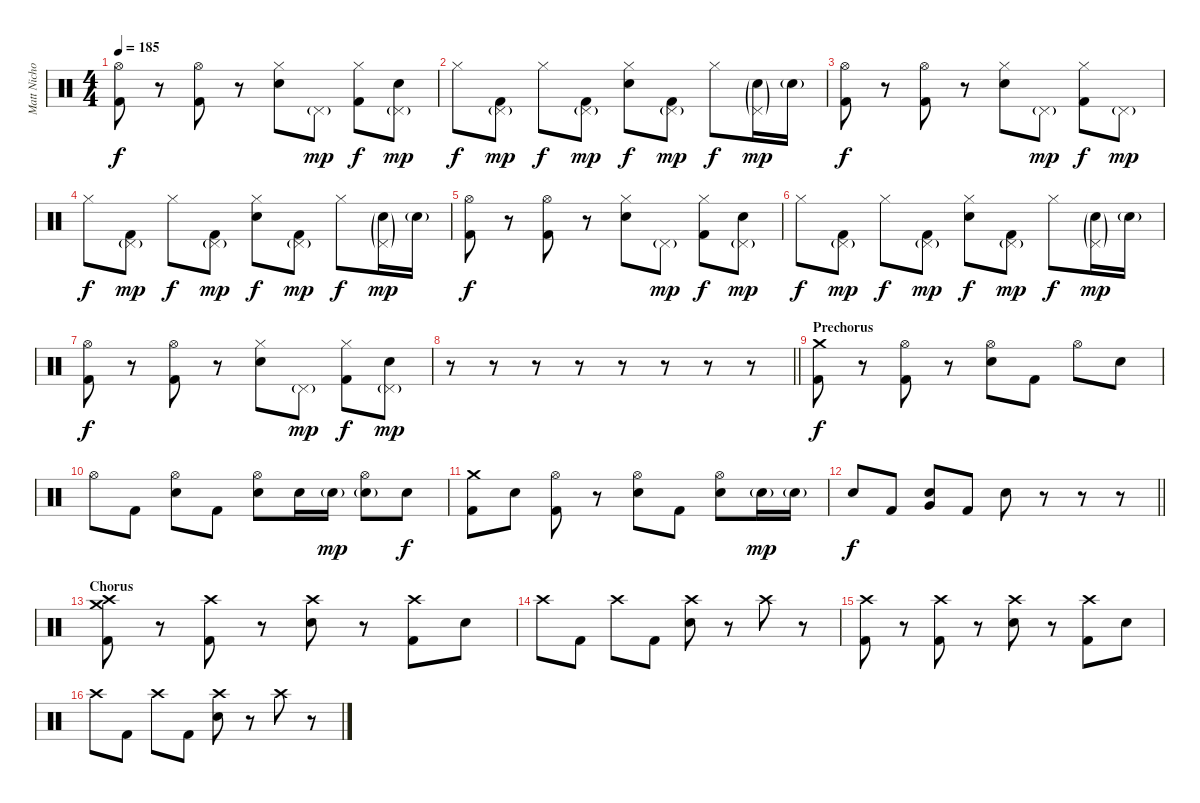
\track ("Matt Nicholls" "Matt Nicho") {instrument percussion}
\staff {score}
\articulation defaults
\ts (4 4)
\tempo 185
\clef neutral
\ks c
("Hi-Hat (open)" "Kick (hit) 2").8{dy f} r.8 ("Hi-Hat (open)" "Kick (hit) 2").8 r.8 ("Hi-Hat (closed)" "Electric Snare (hit)").8 "Pedal Hi-Hat (hit)"{g}.8{dy mp} ("Hi-Hat (closed)" "Kick (hit) 2").8{dy f} ("Pedal Hi-Hat (hit)"{g} "Electric Snare (hit)").8{dy mp} |
"Hi-Hat (closed)".8{dy f} ("Pedal Hi-Hat (hit)"{g} "Kick (hit) 2").8{dy mp} "Hi-Hat (closed)".8{dy f} ("Pedal Hi-Hat (hit)"{g} "Kick (hit) 2").8{dy mp} ("Hi-Hat (closed)" "Electric Snare (hit)").8{dy f} ("Pedal Hi-Hat (hit)"{g} "Kick (hit) 2").8{dy mp} "Hi-Hat (closed)".8{dy f} ("Pedal Hi-Hat (hit)"{g} "Electric Snare (hit)"{g}).16{dy mp} "Electric Snare (hit)"{g}.16 |
("Hi-Hat (open)" "Kick (hit) 2").8{dy f} r.8 ("Hi-Hat (open)" "Kick (hit) 2").8 r.8 ("Hi-Hat (closed)" "Electric Snare (hit)").8 "Pedal Hi-Hat (hit)"{g}.8{dy mp} ("Hi-Hat (closed)" "Kick (hit) 2").8{dy f} "Pedal Hi-Hat (hit)"{g}.8{dy mp} |
"Hi-Hat (closed)".8{dy f} ("Pedal Hi-Hat (hit)"{g} "Kick (hit) 2").8{dy mp} "Hi-Hat (closed)".8{dy f} ("Pedal Hi-Hat (hit)"{g} "Kick (hit) 2").8{dy mp} ("Hi-Hat (closed)" "Electric Snare (hit)").8{dy f} ("Pedal Hi-Hat (hit)"{g} "Kick (hit) 2").8{dy mp} "Hi-Hat (closed)".8{dy f} ("Pedal Hi-Hat (hit)"{g} "Electric Snare (hit)"{g}).16{dy mp} "Electric Snare (hit)"{g}.16 |
("Hi-Hat (open)" "Kick (hit) 2").8{dy f} r.8 ("Hi-Hat (open)" "Kick (hit) 2").8 r.8 ("Hi-Hat (closed)" "Electric Snare (hit)").8 "Pedal Hi-Hat (hit)"{g}.8{dy mp} ("Hi-Hat (closed)" "Kick (hit) 2").8{dy f} ("Pedal Hi-Hat (hit)"{g} "Electric Snare (hit)").8{dy mp} |
"Hi-Hat (closed)".8{dy f} ("Pedal Hi-Hat (hit)"{g} "Kick (hit) 2").8{dy mp} "Hi-Hat (closed)".8{dy f} ("Pedal Hi-Hat (hit)"{g} "Kick (hit) 2").8{dy mp} ("Hi-Hat (closed)" "Electric Snare (hit)").8{dy f} ("Pedal Hi-Hat (hit)"{g} "Kick (hit) 2").8{dy mp} "Hi-Hat (closed)".8{dy f} ("Pedal Hi-Hat (hit)"{g} "Electric Snare (hit)"{g}).16{dy mp} "Electric Snare (hit)"{g}.16 |
("Hi-Hat (open)" "Kick (hit) 2").8{dy f} r.8 ("Hi-Hat (open)" "Kick (hit) 2").8 r.8 ("Hi-Hat (closed)" "Electric Snare (hit)").8 "Pedal Hi-Hat (hit)"{g}.8{dy mp} ("Hi-Hat (closed)" "Kick (hit) 2").8{dy f} ("Pedal Hi-Hat (hit)"{g} "Electric Snare (hit)").8{dy mp} |
\barLineRight lightlight
r.8 r.8 r.8 r.8 r.8 r.8 r.8 r.8 |
\section ("" "Prechorus")
("Crash medium (hit)" "Kick (hit) 2").8{dy f} r.8 ("Hi-Hat (open)" "Kick (hit) 2").8 r.8 ("Hi-Hat (open)" "Electric Snare (hit)").8 "Kick (hit) 2".8 "Hi-Hat (open)".8 "Electric Snare (hit)".8 |
"Hi-Hat (open)".8 "Kick (hit) 2".8 ("Hi-Hat (open)" "Electric Snare (hit)").8 "Kick (hit) 2".8 ("Hi-Hat (open)" "Electric Snare (hit)").8 "Electric Snare (hit)".16 "Electric Snare (hit)"{g}.16{dy mp} ("Hi-Hat (open)" "Electric Snare (hit)"{g}).8 "Electric Snare (hit)".8{dy f} |
("Crash medium (hit)" "Kick (hit) 2").8 "Electric Snare (hit)".8 ("Hi-Hat (open)" "Kick (hit) 2").8 r.8 ("Hi-Hat (open)" "Electric Snare (hit)").8 "Kick (hit) 2".8 ("Hi-Hat (open)" "Electric Snare (hit)").8 "Electric Snare (hit)"{g}.16{dy mp} "Electric Snare (hit)"{g}.16 |
\barLineRight lightlight "Electric Snare (hit)".8{dy f} "Kick (hit) 2".8
("Very Low Tom (hit)" "Electric Snare (hit)").8 "Kick (hit) 2".8 "Electric Snare (hit)".8 r.8 r.8 r.8 |
\section ("" "Chorus")
("Crash medium (hit)" "Crash high (hit)" "Kick (hit) 2").8 r.8 ("Crash high (hit)" "Kick (hit) 2").8 r.8 ("Crash high (hit)" "Electric Snare (hit)").8 r.8 ("Crash high (hit)" "Kick (hit) 2").8 "Electric Snare (hit)".8 |
"Crash high (hit)".8 "Kick (hit) 2".8 "Crash high (hit)".8 "Kick (hit) 2".8 ("Crash high (hit)" "Electric Snare (hit)").8 r.8 "Crash high (hit)".8 r.8 |
("Crash high (hit)" "Kick (hit) 2").8 r.8 ("Crash high (hit)" "Kick (hit) 2").8 r.8 ("Crash high (hit)" "Electric Snare (hit)").8 r.8 ("Crash high (hit)" "Kick (hit) 2").8 "Electric Snare (hit)".8 |
"Crash high (hit)".8 "Kick (hit) 2".8 "Crash high (hit)".8 "Kick (hit) 2".8 ("Crash high (hit)" "Electric Snare (hit)").8 r.8 "Crash high (hit)".8 r.8
